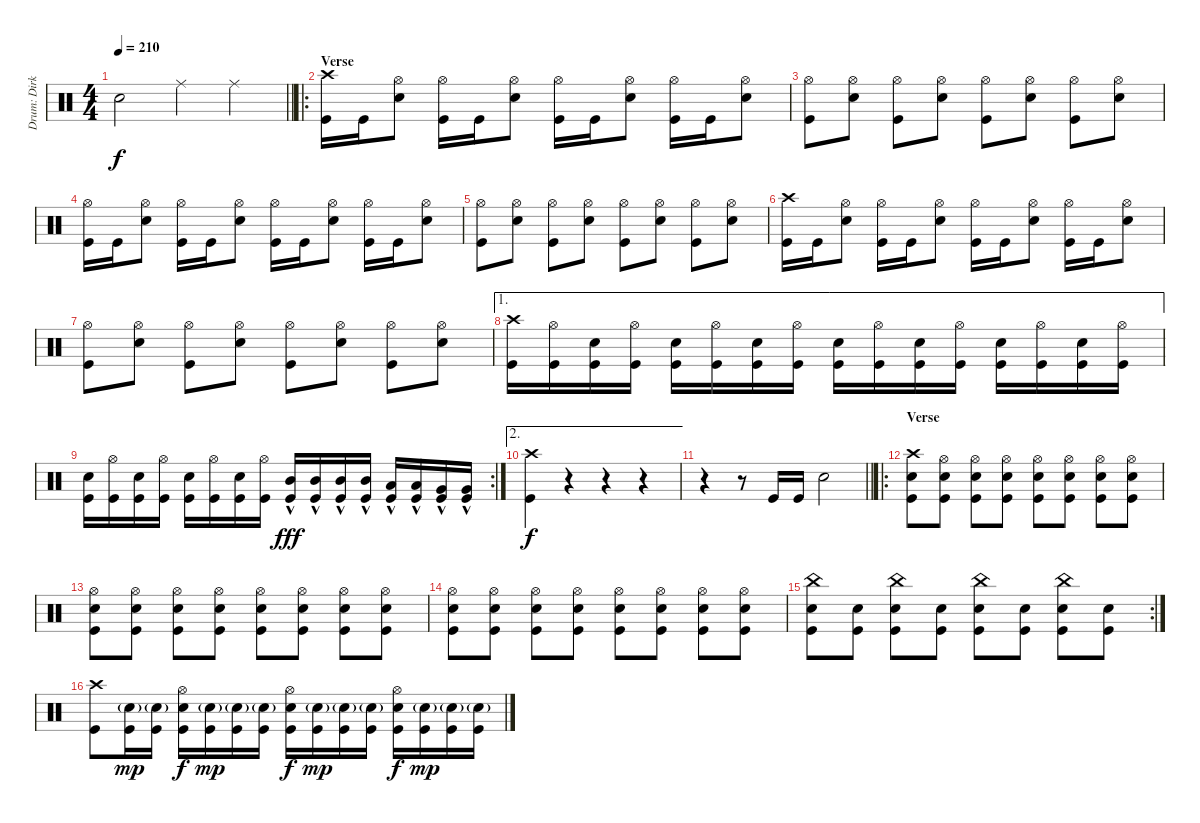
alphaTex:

\track ("Drum: Dirk" "Drum: Dirk") {instrument percussion}
\staff {score}
\articulation defaults
\ts (4 4)
\tempo 210
\clef neutral
\barLineRight lightlight
\ks c "Electric Snare (hit)".2{dy f} "Ride (middle)".4 "Ride (middle)".4
|
\ro
\section ("" "Verse")
("Crash high (hit)" "Kick (hit)").16 "Kick (hit)".16 ("Hi-Hat (open)" "Electric Snare (hit)").8 ("Hi-Hat (open)" "Kick (hit)").16 "Kick (hit)".16 ("Hi-Hat (open)" "Electric Snare (hit)").8 ("Hi-Hat (open)" "Kick (hit)").16 "Kick (hit)".16 ("Hi-Hat (open)" "Electric Snare (hit)").8 ("Hi-Hat (open)" "Kick (hit)").16 "Kick (hit)".16 ("Hi-Hat (open)" "Electric Snare (hit)").8 |
("Hi-Hat (open)" "Kick (hit)").8 ("Hi-Hat (open)" "Electric Snare (hit)").8 ("Hi-Hat (open)" "Kick (hit)").8 ("Hi-Hat (open)" "Electric Snare (hit)").8 ("Hi-Hat (open)" "Kick (hit)").8 ("Hi-Hat (open)" "Electric Snare (hit)").8 ("Hi-Hat (open)" "Kick (hit)").8 ("Hi-Hat (open)" "Electric Snare (hit)").8 |
("Hi-Hat (open)" "Kick (hit)").16 "Kick (hit)".16 ("Hi-Hat (open)" "Electric Snare (hit)").8 ("Hi-Hat (open)" "Kick (hit)").16 "Kick (hit)".16 ("Hi-Hat (open)" "Electric Snare (hit)").8 ("Hi-Hat (open)" "Kick (hit)").16 "Kick (hit)".16 ("Hi-Hat (open)" "Electric Snare (hit)").8 ("Hi-Hat (open)" "Kick (hit)").16 "Kick (hit)".16 ("Hi-Hat (open)" "Electric Snare (hit)").8 |
("Hi-Hat (open)" "Kick (hit)").8 ("Hi-Hat (open)" "Electric Snare (hit)").8 ("Hi-Hat (open)" "Kick (hit)").8 ("Hi-Hat (open)" "Electric Snare (hit)").8 ("Hi-Hat (open)" "Kick (hit)").8 ("Hi-Hat (open)" "Electric Snare (hit)").8 ("Hi-Hat (open)" "Kick (hit)").8 ("Hi-Hat (open)" "Electric Snare (hit)").8 |
("Crash high (hit)" "Kick (hit)").16 "Kick (hit)".16 ("Hi-Hat (open)" "Electric Snare (hit)").8 ("Hi-Hat (open)" "Kick (hit)").16 "Kick (hit)".16 ("Hi-Hat (open)" "Electric Snare (hit)").8 ("Hi-Hat (open)" "Kick (hit)").16 "Kick (hit)".16 ("Hi-Hat (open)" "Electric Snare (hit)").8 ("Hi-Hat (open)" "Kick (hit)").16 "Kick (hit)".16 ("Hi-Hat (open)" "Electric Snare (hit)").8 |
("Hi-Hat (open)" "Kick (hit)").8 ("Hi-Hat (open)" "Electric Snare (hit)").8 ("Hi-Hat (open)" "Kick (hit)").8 ("Hi-Hat (open)" "Electric Snare (hit)").8 ("Hi-Hat (open)" "Kick (hit)").8 ("Hi-Hat (open)" "Electric Snare (hit)").8 ("Hi-Hat (open)" "Kick (hit)").8 ("Hi-Hat (open)" "Electric Snare (hit)").8 |
\ae 1
("Crash high (hit)" "Kick (hit)").16 ("Hi-Hat (open)" "Kick (hit)").16 ("Electric Snare (hit)" "Kick (hit)").16 ("Hi-Hat (open)" "Kick (hit)").16 ("Electric Snare (hit)" "Kick (hit)").16 ("Hi-Hat (open)" "Kick (hit)").16 ("Electric Snare (hit)" "Kick (hit)").16 ("Hi-Hat (open)" "Kick (hit)").16 ("Electric Snare (hit)" "Kick (hit)").16 ("Hi-Hat (open)" "Kick (hit)").16 ("Electric Snare (hit)" "Kick (hit)").16 ("Hi-Hat (open)" "Kick (hit)").16 ("Electric Snare (hit)" "Kick (hit)").16 ("Hi-Hat (open)" "Kick (hit)").16 ("Electric Snare (hit)" "Kick (hit)").16 ("Hi-Hat (open)" "Kick (hit)").16 |
\rc 2
("Electric Snare (hit)" "Kick (hit)").16 ("Hi-Hat (open)" "Kick (hit)").16 ("Electric Snare (hit)" "Kick (hit)").16 ("Hi-Hat (open)" "Kick (hit)").16 ("Electric Snare (hit)" "Kick (hit)").16 ("Hi-Hat (open)" "Kick (hit)").16 ("Electric Snare (hit)" "Kick (hit)").16 ("Hi-Hat (open)" "Kick (hit)").16 ("Mid Tom (hit)"{hac} "Kick (hit)").16{dy fff} ("Mid Tom (hit)"{hac} "Kick (hit)").16 ("Mid Tom (hit)"{hac} "Kick (hit)").16 ("Mid Tom (hit)"{hac} "Kick (hit)").16 ("Low Tom (hit)"{hac} "Kick (hit)").16 ("Low Tom (hit)"{hac} "Kick (hit)").16 ("Very Low Tom (hit)"{hac} "Kick (hit)").16 ("Very Low Tom (hit)"{hac} "Kick (hit)").16 |
\ae 2
("Crash high (hit)" "Kick (hit)").4{dy f} r.4 r.4 r.4 |
\barLineRight lightlight
r.4 r.8 "Kick (hit)".16 "Kick (hit)".16 "Electric Snare (hit)".2 |
\ro
\section ("" "Verse")
("Crash high (hit)" "Electric Snare (hit)" "Kick (hit)").8 ("Hi-Hat (open)" "Electric Snare (hit)" "Kick (hit)").8 ("Hi-Hat (open)" "Electric Snare (hit)" "Kick (hit)").8 ("Hi-Hat (open)" "Electric Snare (hit)" "Kick (hit)").8 ("Hi-Hat (open)" "Electric Snare (hit)" "Kick (hit)").8 ("Hi-Hat (open)" "Electric Snare (hit)" "Kick (hit)").8 ("Hi-Hat (open)" "Electric Snare (hit)" "Kick (hit)").8 ("Hi-Hat (open)" "Electric Snare (hit)" "Kick (hit)").8 |
("Hi-Hat (open)" "Electric Snare (hit)" "Kick (hit)").8 ("Hi-Hat (open)" "Electric Snare (hit)" "Kick (hit)").8 ("Hi-Hat (open)" "Electric Snare (hit)" "Kick (hit)").8 ("Hi-Hat (open)" "Electric Snare (hit)" "Kick (hit)").8 ("Hi-Hat (open)" "Electric Snare (hit)" "Kick (hit)").8 ("Hi-Hat (open)" "Electric Snare (hit)" "Kick (hit)").8 ("Hi-Hat (open)" "Electric Snare (hit)" "Kick (hit)").8 ("Hi-Hat (open)" "Electric Snare (hit)" "Kick (hit)").8 |
("Hi-Hat (open)" "Electric Snare (hit)" "Kick (hit)").8 ("Hi-Hat (open)" "Electric Snare (hit)" "Kick (hit)").8 ("Hi-Hat (open)" "Electric Snare (hit)" "Kick (hit)").8 ("Hi-Hat (open)" "Electric Snare (hit)" "Kick (hit)").8 ("Hi-Hat (open)" "Electric Snare (hit)" "Kick (hit)").8 ("Hi-Hat (open)" "Electric Snare (hit)" "Kick (hit)").8 ("Hi-Hat (open)" "Electric Snare (hit)" "Kick (hit)").8 ("Hi-Hat (open)" "Electric Snare (hit)" "Kick (hit)").8 |
\rc 2
("China (hit)" "Electric Snare (hit)" "Kick (hit)").8 ("Electric Snare (hit)" "Kick (hit)").8 ("China (hit)" "Electric Snare (hit)" "Kick (hit)").8 ("Electric Snare (hit)" "Kick (hit)").8 ("China (hit)" "Electric Snare (hit)" "Kick (hit)").8 ("Electric Snare (hit)" "Kick (hit)").8 ("China (hit)" "Electric Snare (hit)" "Kick (hit)").8 ("Electric Snare (hit)" "Kick (hit)").8 |
("Crash high (hit)" "Kick (hit)").8 ("Electric Snare (hit)"{g} "Kick (hit)").16{dy mp} ("Electric Snare (hit)"{g} "Kick (hit)").16 ("Hi-Hat (open)" "Electric Snare (hit)" "Kick (hit)").16{dy f} ("Electric Snare (hit)"{g} "Kick (hit)").16{dy mp} ("Electric Snare (hit)"{g} "Kick (hit)").16 ("Electric Snare (hit)"{g} "Kick (hit)").16 ("Hi-Hat (open)" "Electric Snare (hit)" "Kick (hit)").16{dy f} ("Electric Snare (hit)"{g} "Kick (hit)").16{dy mp} ("Electric Snare (hit)"{g} "Kick (hit)").16 ("Electric Snare (hit)"{g} "Kick (hit)").16 ("Hi-Hat (open)" "Electric Snare (hit)" "Kick (hit)").16{dy f} ("Electric Snare (hit)"{g} "Kick (hit)").16{dy mp} ("Electric Snare (hit)"{g} "Kick (hit)").16 ("Electric Snare (hit)"{g} "Kick (hit)").16
